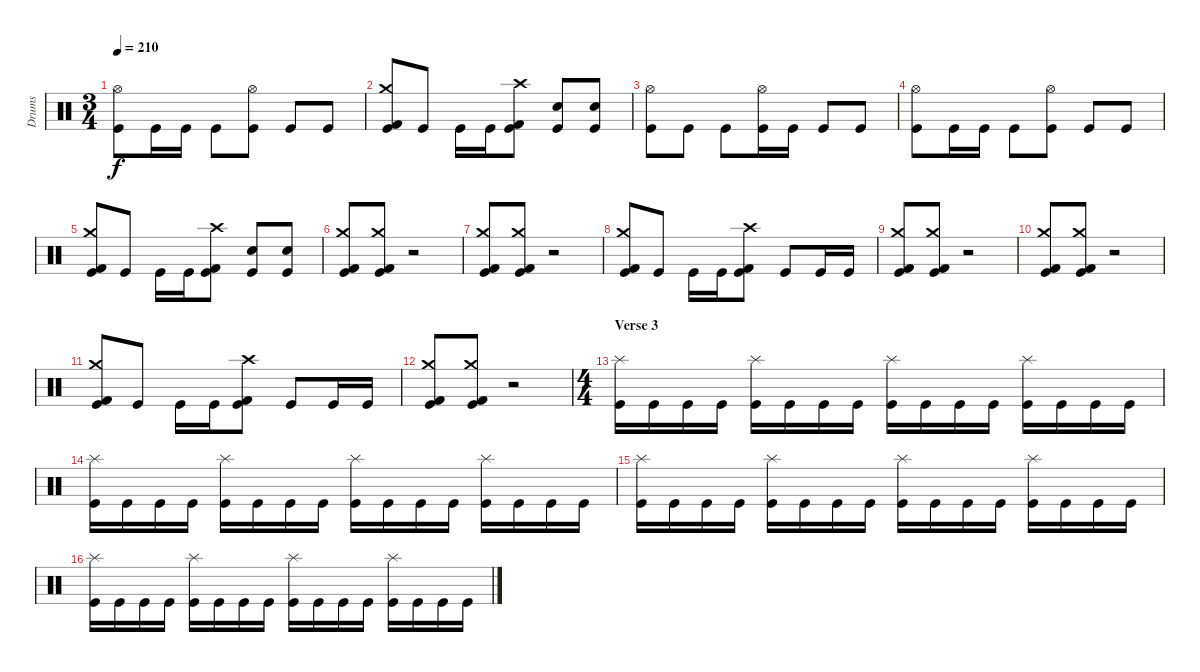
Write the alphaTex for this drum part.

\track ("Drums" "Drums") {instrument percussion}
\staff {score}
\articulation defaults
\ts (3 4)
\tempo 210
\clef neutral
\ks c
("Hi-Hat (open)" "Kick (hit)").8{dy f} "Kick (hit)".16 "Kick (hit)".16 "Kick (hit)".8 ("Hi-Hat (open)" "Kick (hit)").8 "Kick (hit)".8 "Kick (hit)".8 |
("Crash medium (hit)" "Kick (hit)" "Kick (hit) 2").8 "Kick (hit)".8 "Kick (hit)".16 "Kick (hit)".16 ("Crash high (hit)" "Kick (hit)" "Kick (hit) 2").8 ("Kick (hit)" "Electric Snare (hit)").8 ("Kick (hit)" "Electric Snare (hit)").8 |
("Hi-Hat (open)" "Kick (hit)").8 "Kick (hit)".8 "Kick (hit)".8 ("Hi-Hat (open)" "Kick (hit)").16 "Kick (hit)".16 "Kick (hit)".8 "Kick (hit)".8 |
("Hi-Hat (open)" "Kick (hit)").8 "Kick (hit)".16 "Kick (hit)".16 "Kick (hit)".8 ("Hi-Hat (open)" "Kick (hit)").8 "Kick (hit)".8 "Kick (hit)".8 |
("Crash medium (hit)" "Kick (hit)" "Kick (hit) 2").8 "Kick (hit)".8 "Kick (hit)".16 "Kick (hit)".16 ("Crash high (hit)" "Kick (hit)" "Kick (hit) 2").8 ("Kick (hit)" "Electric Snare (hit)").8 ("Kick (hit)" "Electric Snare (hit)").8 |
("Crash medium (hit)" "Kick (hit)" "Kick (hit) 2").8 ("Crash medium (hit)" "Kick (hit)" "Kick (hit) 2").8 r.2 |
("Crash medium (hit)" "Kick (hit)" "Kick (hit) 2").8 ("Crash medium (hit)" "Kick (hit)" "Kick (hit) 2").8 r.2 |
("Crash medium (hit)" "Kick (hit)" "Kick (hit) 2").8 "Kick (hit)".8 "Kick (hit)".16 "Kick (hit)".16 ("Crash high (hit)" "Kick (hit)" "Kick (hit) 2").8 "Kick (hit)".8 "Kick (hit)".16 "Kick (hit)".16 |
("Crash medium (hit)" "Kick (hit)" "Kick (hit) 2").8 ("Crash medium (hit)" "Kick (hit)" "Kick (hit) 2").8 r.2 |
("Crash medium (hit)" "Kick (hit)" "Kick (hit) 2").8 ("Crash medium (hit)" "Kick (hit)" "Kick (hit) 2").8 r.2 |
("Crash medium (hit)" "Kick (hit)" "Kick (hit) 2").8 "Kick (hit)".8 "Kick (hit)".16 "Kick (hit)".16 ("Crash high (hit)" "Kick (hit)" "Kick (hit) 2").8 "Kick (hit)".8 "Kick (hit)".16 "Kick (hit)".16 |
("Crash medium (hit)" "Kick (hit)" "Kick (hit) 2").8 ("Crash medium (hit)" "Kick (hit)" "Kick (hit) 2").8 r.2 |
\ts (4 4)
\section ("" "Verse 3")
("Splash (hit)" "Kick (hit)").16 "Kick (hit)".16 "Kick (hit)".16 "Kick (hit)".16 ("Splash (hit)" "Kick (hit)").16 "Kick (hit)".16 "Kick (hit)".16 "Kick (hit)".16 ("Splash (hit)" "Kick (hit)").16 "Kick (hit)".16 "Kick (hit)".16 "Kick (hit)".16 ("Splash (hit)" "Kick (hit)").16 "Kick (hit)".16 "Kick (hit)".16 "Kick (hit)".16 |
("Splash (hit)" "Kick (hit)").16 "Kick (hit)".16 "Kick (hit)".16 "Kick (hit)".16 ("Splash (hit)" "Kick (hit)").16 "Kick (hit)".16 "Kick (hit)".16 "Kick (hit)".16 ("Splash (hit)" "Kick (hit)").16 "Kick (hit)".16 "Kick (hit)".16 "Kick (hit)".16 ("Splash (hit)" "Kick (hit)").16 "Kick (hit)".16 "Kick (hit)".16 "Kick (hit)".16 |
("Splash (hit)" "Kick (hit)").16 "Kick (hit)".16 "Kick (hit)".16 "Kick (hit)".16 ("Splash (hit)" "Kick (hit)").16 "Kick (hit)".16 "Kick (hit)".16 "Kick (hit)".16 ("Splash (hit)" "Kick (hit)").16 "Kick (hit)".16 "Kick (hit)".16 "Kick (hit)".16 ("Splash (hit)" "Kick (hit)").16 "Kick (hit)".16 "Kick (hit)".16 "Kick (hit)".16 |
("Splash (hit)" "Kick (hit)").16 "Kick (hit)".16 "Kick (hit)".16 "Kick (hit)".16 ("Splash (hit)" "Kick (hit)").16 "Kick (hit)".16 "Kick (hit)".16 "Kick (hit)".16 ("Splash (hit)" "Kick (hit)").16 "Kick (hit)".16 "Kick (hit)".16 "Kick (hit)".16 ("Splash (hit)" "Kick (hit)").16 "Kick (hit)".16 "Kick (hit)".16 "Kick (hit)".16
